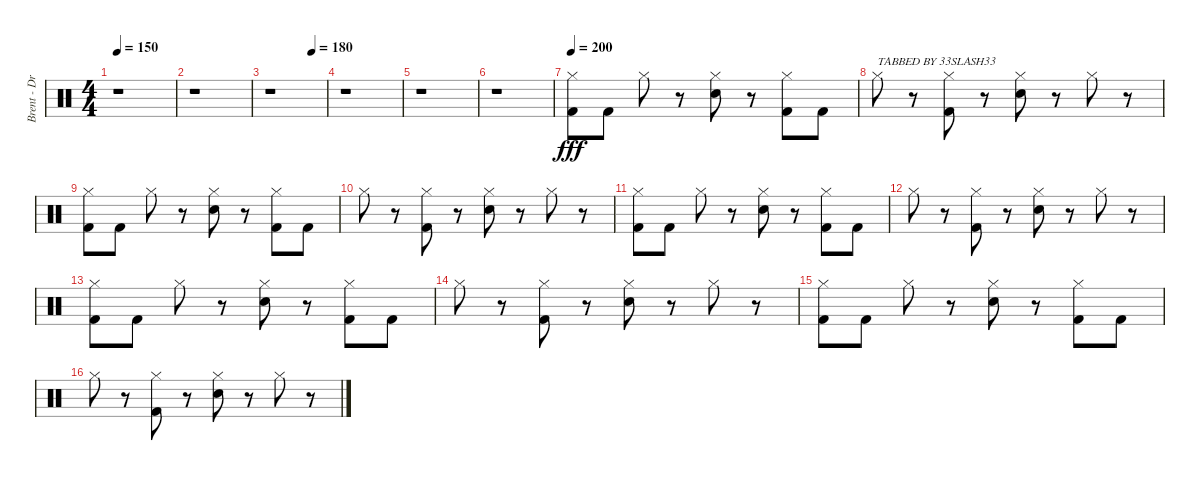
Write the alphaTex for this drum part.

\track ("Brent - Drums" "Brent - Dr") {instrument percussion}
\staff {score}
\articulation defaults
\ts (4 4)
\tempo 150
\clef neutral
\ks c
r.1{dy fff} |
r.1 |
\tempo (180 0.75)
r.1 |
r.1 |
r.1 |
r.1 |
\tempo 200
("Hi-Hat (closed)" "Kick (hit) 2").8 "Kick (hit) 2".8 "Hi-Hat (closed)".8 r.8 ("Hi-Hat (closed)" "Snare (hit) 2").8 r.8 ("Hi-Hat (closed)" "Kick (hit) 2").8 "Kick (hit) 2".8 |
"Hi-Hat (closed)".8{txt "TABBED BY 33SLASH33"} r.8 ("Hi-Hat (closed)" "Kick (hit) 2").8 r.8 ("Hi-Hat (closed)" "Snare (hit) 2").8 r.8 "Hi-Hat (closed)".8 r.8 |
("Hi-Hat (closed)" "Kick (hit) 2").8 "Kick (hit) 2".8 "Hi-Hat (closed)".8 r.8 ("Hi-Hat (closed)" "Snare (hit) 2").8 r.8 ("Hi-Hat (closed)" "Kick (hit) 2").8 "Kick (hit) 2".8 |
"Hi-Hat (closed)".8 r.8 ("Hi-Hat (closed)" "Kick (hit) 2").8 r.8 ("Hi-Hat (closed)" "Snare (hit) 2").8 r.8 "Hi-Hat (closed)".8 r.8 |
("Hi-Hat (closed)" "Kick (hit) 2").8 "Kick (hit) 2".8 "Hi-Hat (closed)".8 r.8 ("Hi-Hat (closed)" "Snare (hit) 2").8 r.8 ("Hi-Hat (closed)" "Kick (hit) 2").8 "Kick (hit) 2".8 |
"Hi-Hat (closed)".8 r.8 ("Hi-Hat (closed)" "Kick (hit) 2").8 r.8 ("Hi-Hat (closed)" "Snare (hit) 2").8 r.8 "Hi-Hat (closed)".8 r.8 |
("Hi-Hat (closed)" "Kick (hit) 2").8 "Kick (hit) 2".8 "Hi-Hat (closed)".8 r.8 ("Hi-Hat (closed)" "Snare (hit) 2").8 r.8 ("Hi-Hat (closed)" "Kick (hit) 2").8 "Kick (hit) 2".8 |
"Hi-Hat (closed)".8 r.8 ("Hi-Hat (closed)" "Kick (hit) 2").8 r.8 ("Hi-Hat (closed)" "Snare (hit) 2").8 r.8 "Hi-Hat (closed)".8 r.8 |
("Hi-Hat (closed)" "Kick (hit) 2").8 "Kick (hit) 2".8 "Hi-Hat (closed)".8 r.8 ("Hi-Hat (closed)" "Snare (hit) 2").8 r.8 ("Hi-Hat (closed)" "Kick (hit) 2").8 "Kick (hit) 2".8 |
"Hi-Hat (closed)".8 r.8 ("Hi-Hat (closed)" "Kick (hit) 2").8 r.8 ("Hi-Hat (closed)" "Snare (hit) 2").8 r.8 "Hi-Hat (closed)".8 r.8
